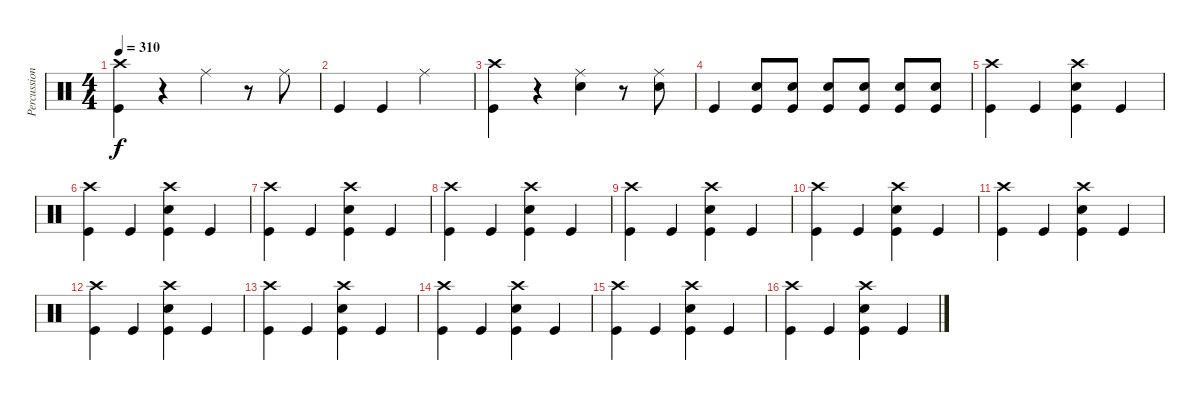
\track ("Percussion" "Percussion") {instrument percussion}
\staff {score}
\articulation defaults
\ts (4 4)
\tempo 310
\clef neutral
\ks c
("Crash high (hit)" "Kick (hit)").4{dy f} r.4 "Ride (middle)".4 r.8 "Ride (middle)".8 |
"Kick (hit)".4 "Kick (hit)".4 "Ride (middle)".2 |
("Crash high (hit)" "Kick (hit)").4 r.4 ("Ride (middle)" "Electric Snare (hit)").4 r.8 ("Ride (middle)" "Electric Snare (hit)").8 |
"Kick (hit)".4 ("Electric Snare (hit)" "Kick (hit)").8 ("Electric Snare (hit)" "Kick (hit)").8 ("Electric Snare (hit)" "Kick (hit)").8 ("Electric Snare (hit)" "Kick (hit)").8 ("Electric Snare (hit)" "Kick (hit)").8 ("Electric Snare (hit)" "Kick (hit)").8 |
("Crash high (hit)" "Kick (hit)").4 "Kick (hit)".4 ("Crash high (hit)" "Electric Snare (hit)" "Kick (hit)").4 "Kick (hit)".4 |
("Crash high (hit)" "Kick (hit)").4 "Kick (hit)".4 ("Crash high (hit)" "Electric Snare (hit)" "Kick (hit)").4 "Kick (hit)".4 |
("Crash high (hit)" "Kick (hit)").4 "Kick (hit)".4 ("Crash high (hit)" "Electric Snare (hit)" "Kick (hit)").4 "Kick (hit)".4 |
("Crash high (hit)" "Kick (hit)").4 "Kick (hit)".4 ("Crash high (hit)" "Electric Snare (hit)" "Kick (hit)").4 "Kick (hit)".4 |
("Crash high (hit)" "Kick (hit)").4 "Kick (hit)".4 ("Crash high (hit)" "Electric Snare (hit)" "Kick (hit)").4 "Kick (hit)".4 |
("Crash high (hit)" "Kick (hit)").4 "Kick (hit)".4 ("Crash high (hit)" "Electric Snare (hit)" "Kick (hit)").4 "Kick (hit)".4 |
("Crash high (hit)" "Kick (hit)").4 "Kick (hit)".4 ("Crash high (hit)" "Electric Snare (hit)" "Kick (hit)").4 "Kick (hit)".4 |
("Crash high (hit)" "Kick (hit)").4 "Kick (hit)".4 ("Crash high (hit)" "Electric Snare (hit)" "Kick (hit)").4 "Kick (hit)".4 |
("Crash high (hit)" "Kick (hit)").4 "Kick (hit)".4 ("Crash high (hit)" "Electric Snare (hit)" "Kick (hit)").4 "Kick (hit)".4 |
("Crash high (hit)" "Kick (hit)").4 "Kick (hit)".4 ("Crash high (hit)" "Electric Snare (hit)" "Kick (hit)").4 "Kick (hit)".4 |
("Crash high (hit)" "Kick (hit)").4 "Kick (hit)".4 ("Crash high (hit)" "Electric Snare (hit)" "Kick (hit)").4 "Kick (hit)".4 |
("Crash high (hit)" "Kick (hit)").4 "Kick (hit)".4 ("Crash high (hit)" "Electric Snare (hit)" "Kick (hit)").4 "Kick (hit)".4
